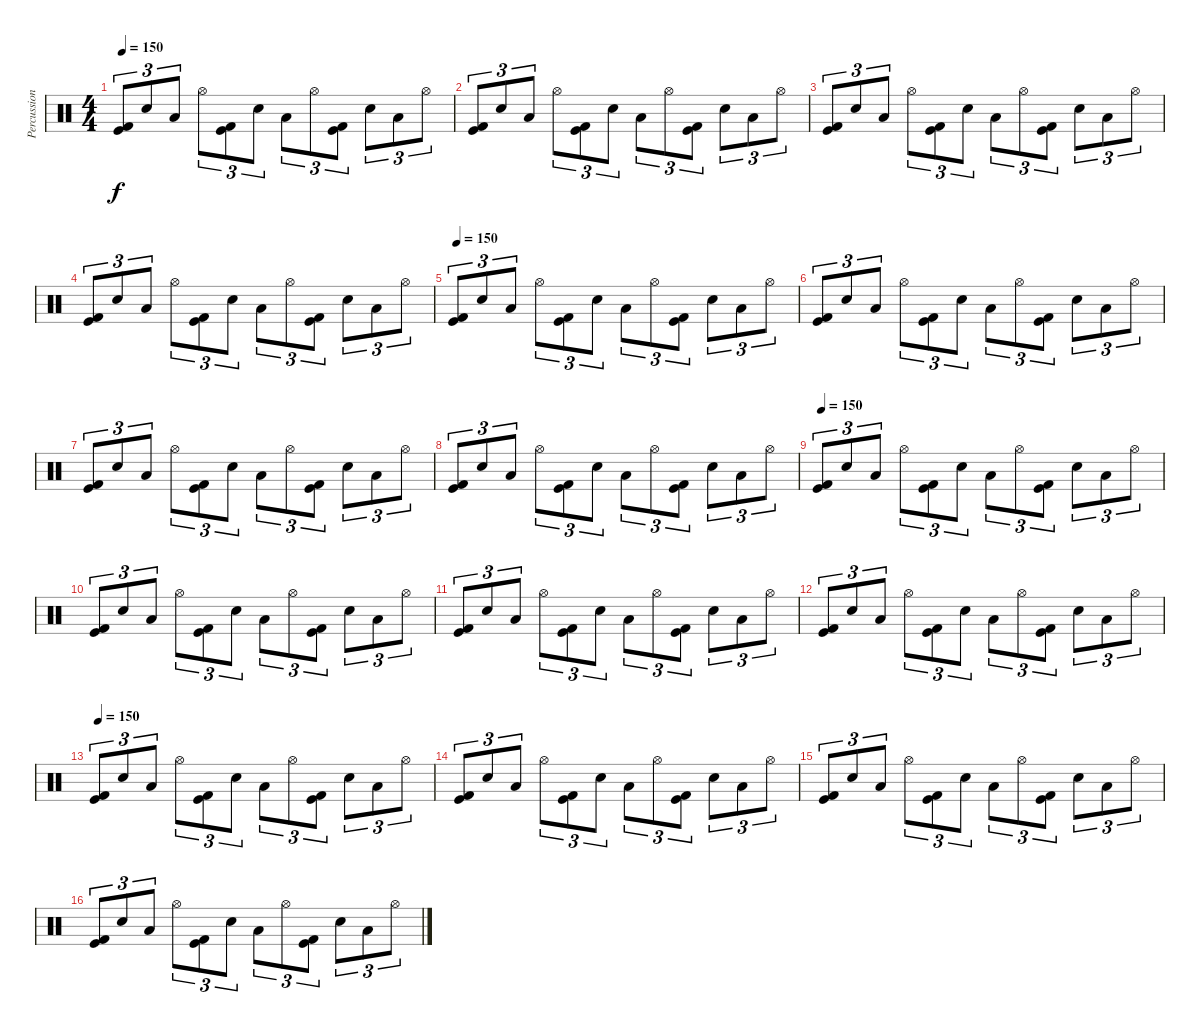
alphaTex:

\track ("Percussion" "Percussion") {instrument percussion}
\staff {score}
\articulation defaults
\ts (4 4)
\tempo 150
\clef neutral
\ks c
("Kick (hit)" "Kick (hit) 2").8{tu (3 2) dy f} "Snare (hit) 2".8{tu (3 2)} "Low Tom (hit)".8{tu (3 2)} "Hi-Hat (open)".8{tu (3 2)} ("Kick (hit)" "Kick (hit) 2").8{tu (3 2)} "Snare (hit) 2".8{tu (3 2)} "Low Tom (hit)".8{tu (3 2)} "Hi-Hat (open)".8{tu (3 2)} ("Kick (hit)" "Kick (hit) 2").8{tu (3 2)} "Snare (hit) 2".8{tu (3 2)} "Low Tom (hit)".8{tu (3 2)} "Hi-Hat (open)".8{tu (3 2)} |
("Kick (hit)" "Kick (hit) 2").8{tu (3 2)} "Snare (hit) 2".8{tu (3 2)} "Low Tom (hit)".8{tu (3 2)} "Hi-Hat (open)".8{tu (3 2)} ("Kick (hit)" "Kick (hit) 2").8{tu (3 2)} "Snare (hit) 2".8{tu (3 2)} "Low Tom (hit)".8{tu (3 2)} "Hi-Hat (open)".8{tu (3 2)} ("Kick (hit)" "Kick (hit) 2").8{tu (3 2)} "Snare (hit) 2".8{tu (3 2)} "Low Tom (hit)".8{tu (3 2)} "Hi-Hat (open)".8{tu (3 2)} |
("Kick (hit)" "Kick (hit) 2").8{tu (3 2)} "Snare (hit) 2".8{tu (3 2)} "Low Tom (hit)".8{tu (3 2)} "Hi-Hat (open)".8{tu (3 2)} ("Kick (hit)" "Kick (hit) 2").8{tu (3 2)} "Snare (hit) 2".8{tu (3 2)} "Low Tom (hit)".8{tu (3 2)} "Hi-Hat (open)".8{tu (3 2)} ("Kick (hit)" "Kick (hit) 2").8{tu (3 2)} "Snare (hit) 2".8{tu (3 2)} "Low Tom (hit)".8{tu (3 2)} "Hi-Hat (open)".8{tu (3 2)} |
("Kick (hit)" "Kick (hit) 2").8{tu (3 2)} "Snare (hit) 2".8{tu (3 2)} "Low Tom (hit)".8{tu (3 2)} "Hi-Hat (open)".8{tu (3 2)} ("Kick (hit)" "Kick (hit) 2").8{tu (3 2)} "Snare (hit) 2".8{tu (3 2)} "Low Tom (hit)".8{tu (3 2)} "Hi-Hat (open)".8{tu (3 2)} ("Kick (hit)" "Kick (hit) 2").8{tu (3 2)} "Snare (hit) 2".8{tu (3 2)} "Low Tom (hit)".8{tu (3 2)} "Hi-Hat (open)".8{tu (3 2)} |
\tempo 150
("Kick (hit)" "Kick (hit) 2").8{tu (3 2)} "Snare (hit) 2".8{tu (3 2)} "Low Tom (hit)".8{tu (3 2)} "Hi-Hat (open)".8{tu (3 2)} ("Kick (hit)" "Kick (hit) 2").8{tu (3 2)} "Snare (hit) 2".8{tu (3 2)} "Low Tom (hit)".8{tu (3 2)} "Hi-Hat (open)".8{tu (3 2)} ("Kick (hit)" "Kick (hit) 2").8{tu (3 2)} "Snare (hit) 2".8{tu (3 2)} "Low Tom (hit)".8{tu (3 2)} "Hi-Hat (open)".8{tu (3 2)} |
("Kick (hit)" "Kick (hit) 2").8{tu (3 2)} "Snare (hit) 2".8{tu (3 2)} "Low Tom (hit)".8{tu (3 2)} "Hi-Hat (open)".8{tu (3 2)} ("Kick (hit)" "Kick (hit) 2").8{tu (3 2)} "Snare (hit) 2".8{tu (3 2)} "Low Tom (hit)".8{tu (3 2)} "Hi-Hat (open)".8{tu (3 2)} ("Kick (hit)" "Kick (hit) 2").8{tu (3 2)} "Snare (hit) 2".8{tu (3 2)} "Low Tom (hit)".8{tu (3 2)} "Hi-Hat (open)".8{tu (3 2)} |
("Kick (hit)" "Kick (hit) 2").8{tu (3 2)} "Snare (hit) 2".8{tu (3 2)} "Low Tom (hit)".8{tu (3 2)} "Hi-Hat (open)".8{tu (3 2)} ("Kick (hit)" "Kick (hit) 2").8{tu (3 2)} "Snare (hit) 2".8{tu (3 2)} "Low Tom (hit)".8{tu (3 2)} "Hi-Hat (open)".8{tu (3 2)} ("Kick (hit)" "Kick (hit) 2").8{tu (3 2)} "Snare (hit) 2".8{tu (3 2)} "Low Tom (hit)".8{tu (3 2)} "Hi-Hat (open)".8{tu (3 2)} |
("Kick (hit)" "Kick (hit) 2").8{tu (3 2)} "Snare (hit) 2".8{tu (3 2)} "Low Tom (hit)".8{tu (3 2)} "Hi-Hat (open)".8{tu (3 2)} ("Kick (hit)" "Kick (hit) 2").8{tu (3 2)} "Snare (hit) 2".8{tu (3 2)} "Low Tom (hit)".8{tu (3 2)} "Hi-Hat (open)".8{tu (3 2)} ("Kick (hit)" "Kick (hit) 2").8{tu (3 2)} "Snare (hit) 2".8{tu (3 2)} "Low Tom (hit)".8{tu (3 2)} "Hi-Hat (open)".8{tu (3 2)} |
\tempo 150
("Kick (hit)" "Kick (hit) 2").8{tu (3 2)} "Snare (hit) 2".8{tu (3 2)} "Low Tom (hit)".8{tu (3 2)} "Hi-Hat (open)".8{tu (3 2)} ("Kick (hit)" "Kick (hit) 2").8{tu (3 2)} "Snare (hit) 2".8{tu (3 2)} "Low Tom (hit)".8{tu (3 2)} "Hi-Hat (open)".8{tu (3 2)} ("Kick (hit)" "Kick (hit) 2").8{tu (3 2)} "Snare (hit) 2".8{tu (3 2)} "Low Tom (hit)".8{tu (3 2)} "Hi-Hat (open)".8{tu (3 2)} |
("Kick (hit)" "Kick (hit) 2").8{tu (3 2)} "Snare (hit) 2".8{tu (3 2)} "Low Tom (hit)".8{tu (3 2)} "Hi-Hat (open)".8{tu (3 2)} ("Kick (hit)" "Kick (hit) 2").8{tu (3 2)} "Snare (hit) 2".8{tu (3 2)} "Low Tom (hit)".8{tu (3 2)} "Hi-Hat (open)".8{tu (3 2)} ("Kick (hit)" "Kick (hit) 2").8{tu (3 2)} "Snare (hit) 2".8{tu (3 2)} "Low Tom (hit)".8{tu (3 2)} "Hi-Hat (open)".8{tu (3 2)} |
("Kick (hit)" "Kick (hit) 2").8{tu (3 2)} "Snare (hit) 2".8{tu (3 2)} "Low Tom (hit)".8{tu (3 2)} "Hi-Hat (open)".8{tu (3 2)} ("Kick (hit)" "Kick (hit) 2").8{tu (3 2)} "Snare (hit) 2".8{tu (3 2)} "Low Tom (hit)".8{tu (3 2)} "Hi-Hat (open)".8{tu (3 2)} ("Kick (hit)" "Kick (hit) 2").8{tu (3 2)} "Snare (hit) 2".8{tu (3 2)} "Low Tom (hit)".8{tu (3 2)} "Hi-Hat (open)".8{tu (3 2)} |
("Kick (hit)" "Kick (hit) 2").8{tu (3 2)} "Snare (hit) 2".8{tu (3 2)} "Low Tom (hit)".8{tu (3 2)} "Hi-Hat (open)".8{tu (3 2)} ("Kick (hit)" "Kick (hit) 2").8{tu (3 2)} "Snare (hit) 2".8{tu (3 2)} "Low Tom (hit)".8{tu (3 2)} "Hi-Hat (open)".8{tu (3 2)} ("Kick (hit)" "Kick (hit) 2").8{tu (3 2)} "Snare (hit) 2".8{tu (3 2)} "Low Tom (hit)".8{tu (3 2)} "Hi-Hat (open)".8{tu (3 2)} |
\tempo 150
("Kick (hit)" "Kick (hit) 2").8{tu (3 2)} "Snare (hit) 2".8{tu (3 2)} "Low Tom (hit)".8{tu (3 2)} "Hi-Hat (open)".8{tu (3 2)} ("Kick (hit)" "Kick (hit) 2").8{tu (3 2)} "Snare (hit) 2".8{tu (3 2)} "Low Tom (hit)".8{tu (3 2)} "Hi-Hat (open)".8{tu (3 2)} ("Kick (hit)" "Kick (hit) 2").8{tu (3 2)} "Snare (hit) 2".8{tu (3 2)} "Low Tom (hit)".8{tu (3 2)} "Hi-Hat (open)".8{tu (3 2)} |
("Kick (hit)" "Kick (hit) 2").8{tu (3 2)} "Snare (hit) 2".8{tu (3 2)} "Low Tom (hit)".8{tu (3 2)} "Hi-Hat (open)".8{tu (3 2)} ("Kick (hit)" "Kick (hit) 2").8{tu (3 2)} "Snare (hit) 2".8{tu (3 2)} "Low Tom (hit)".8{tu (3 2)} "Hi-Hat (open)".8{tu (3 2)} ("Kick (hit)" "Kick (hit) 2").8{tu (3 2)} "Snare (hit) 2".8{tu (3 2)} "Low Tom (hit)".8{tu (3 2)} "Hi-Hat (open)".8{tu (3 2)} |
("Kick (hit)" "Kick (hit) 2").8{tu (3 2)} "Snare (hit) 2".8{tu (3 2)} "Low Tom (hit)".8{tu (3 2)} "Hi-Hat (open)".8{tu (3 2)} ("Kick (hit)" "Kick (hit) 2").8{tu (3 2)} "Snare (hit) 2".8{tu (3 2)} "Low Tom (hit)".8{tu (3 2)} "Hi-Hat (open)".8{tu (3 2)} ("Kick (hit)" "Kick (hit) 2").8{tu (3 2)} "Snare (hit) 2".8{tu (3 2)} "Low Tom (hit)".8{tu (3 2)} "Hi-Hat (open)".8{tu (3 2)} |
("Kick (hit)" "Kick (hit) 2").8{tu (3 2)} "Snare (hit) 2".8{tu (3 2)} "Low Tom (hit)".8{tu (3 2)} "Hi-Hat (open)".8{tu (3 2)} ("Kick (hit)" "Kick (hit) 2").8{tu (3 2)} "Snare (hit) 2".8{tu (3 2)} "Low Tom (hit)".8{tu (3 2)} "Hi-Hat (open)".8{tu (3 2)} ("Kick (hit)" "Kick (hit) 2").8{tu (3 2)} "Snare (hit) 2".8{tu (3 2)} "Low Tom (hit)".8{tu (3 2)} "Hi-Hat (open)".8{tu (3 2)}
